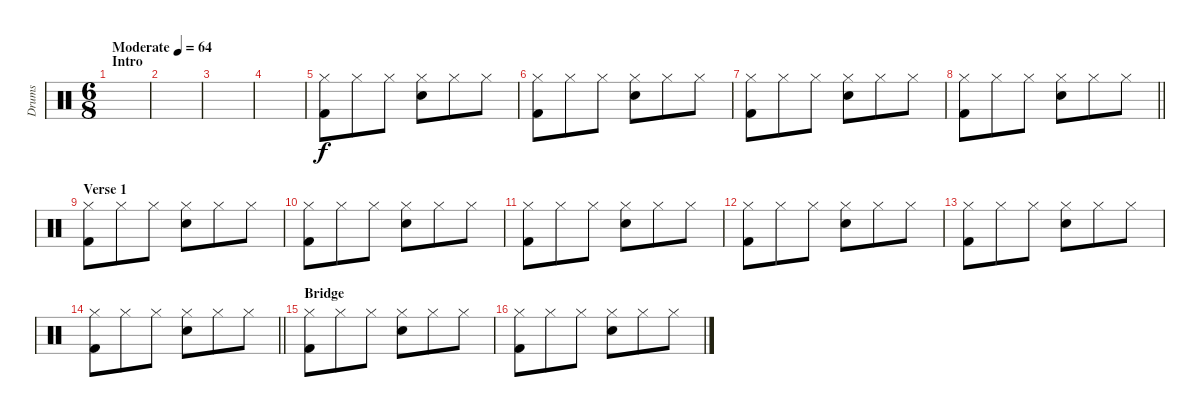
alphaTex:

\track ("Drums" "Drums") {instrument percussion}
\staff {score}
\articulation defaults
\ts (6 8)
\section ("" "Intro")
\tempo (64 "Moderate")
\clef neutral
\ks c
|
|
|
|
("Hi-Hat (closed)" "Kick (hit) 2").8 "Hi-Hat (closed)".8 "Hi-Hat (closed)".8 ("Hi-Hat (closed)" "Electric Snare (hit)").8 "Hi-Hat (closed)".8 "Hi-Hat (closed)".8 |
("Hi-Hat (closed)" "Kick (hit) 2").8 "Hi-Hat (closed)".8 "Hi-Hat (closed)".8 ("Hi-Hat (closed)" "Electric Snare (hit)").8 "Hi-Hat (closed)".8 "Hi-Hat (closed)".8 |
("Hi-Hat (closed)" "Kick (hit) 2").8 "Hi-Hat (closed)".8 "Hi-Hat (closed)".8 ("Hi-Hat (closed)" "Electric Snare (hit)").8 "Hi-Hat (closed)".8 "Hi-Hat (closed)".8 |
\barLineRight lightlight
("Hi-Hat (closed)" "Kick (hit) 2").8 "Hi-Hat (closed)".8 "Hi-Hat (closed)".8 ("Hi-Hat (closed)" "Electric Snare (hit)").8 "Hi-Hat (closed)".8 "Hi-Hat (closed)".8 |
\section ("" "Verse 1")
("Hi-Hat (closed)" "Kick (hit) 2").8 "Hi-Hat (closed)".8 "Hi-Hat (closed)".8 ("Hi-Hat (closed)" "Electric Snare (hit)").8 "Hi-Hat (closed)".8 "Hi-Hat (closed)".8 |
("Hi-Hat (closed)" "Kick (hit) 2").8 "Hi-Hat (closed)".8 "Hi-Hat (closed)".8 ("Hi-Hat (closed)" "Electric Snare (hit)").8 "Hi-Hat (closed)".8 "Hi-Hat (closed)".8 |
("Hi-Hat (closed)" "Kick (hit) 2").8 "Hi-Hat (closed)".8 "Hi-Hat (closed)".8 ("Hi-Hat (closed)" "Electric Snare (hit)").8 "Hi-Hat (closed)".8 "Hi-Hat (closed)".8 |
("Hi-Hat (closed)" "Kick (hit) 2").8 "Hi-Hat (closed)".8 "Hi-Hat (closed)".8 ("Hi-Hat (closed)" "Electric Snare (hit)").8 "Hi-Hat (closed)".8 "Hi-Hat (closed)".8 |
("Hi-Hat (closed)" "Kick (hit) 2").8 "Hi-Hat (closed)".8 "Hi-Hat (closed)".8 ("Hi-Hat (closed)" "Electric Snare (hit)").8 "Hi-Hat (closed)".8 "Hi-Hat (closed)".8 |
\barLineRight lightlight
("Hi-Hat (closed)" "Kick (hit) 2").8 "Hi-Hat (closed)".8 "Hi-Hat (closed)".8 ("Hi-Hat (closed)" "Electric Snare (hit)").8 "Hi-Hat (closed)".8 "Hi-Hat (closed)".8 |
\section ("" "Bridge")
("Hi-Hat (closed)" "Kick (hit) 2").8 "Hi-Hat (closed)".8 "Hi-Hat (closed)".8 ("Hi-Hat (closed)" "Electric Snare (hit)").8 "Hi-Hat (closed)".8 "Hi-Hat (closed)".8 |
("Hi-Hat (closed)" "Kick (hit) 2").8 "Hi-Hat (closed)".8 "Hi-Hat (closed)".8 ("Hi-Hat (closed)" "Electric Snare (hit)").8 "Hi-Hat (closed)".8 "Hi-Hat (closed)".8
